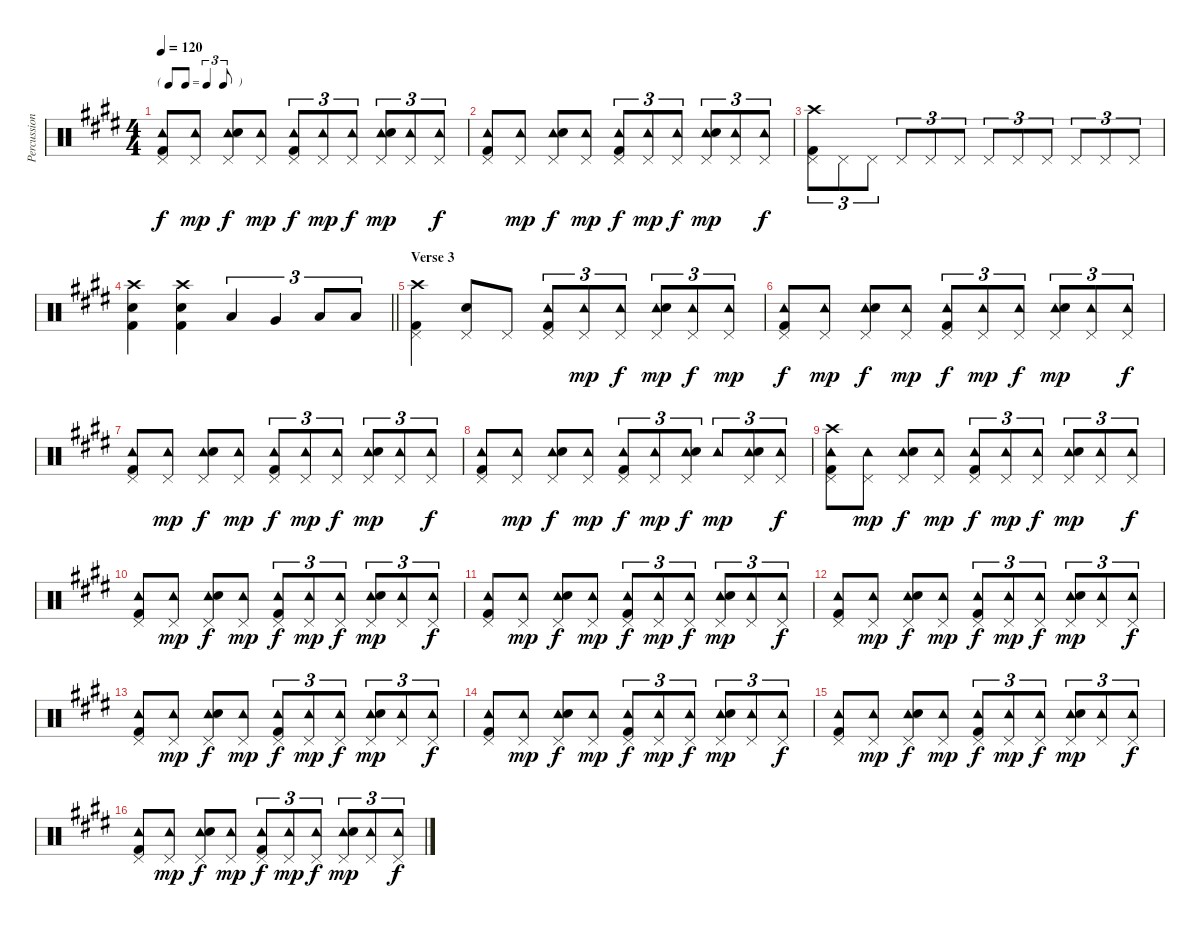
\track ("Percussion" "Percussion") {instrument percussion}
\staff {score}
\articulation defaults
\ts (4 4)
\tf triplet8th
\tempo 120
\clef neutral
\ks e
("Tambourine (hit)" "Pedal Hi-Hat (hit)" "Kick (hit) 2").8{dy f} ("Tambourine (hit)" "Pedal Hi-Hat (hit)").8{dy mp} ("Tambourine (hit)" "Pedal Hi-Hat (hit)" "Electric Snare (hit)").8{dy f} ("Tambourine (hit)" "Pedal Hi-Hat (hit)").8{dy mp} ("Tambourine (hit)" "Pedal Hi-Hat (hit)" "Kick (hit) 2").8{tu (3 2) dy f} ("Tambourine (hit)" "Pedal Hi-Hat (hit)").8{tu (3 2) dy mp} ("Tambourine (hit)" "Pedal Hi-Hat (hit)").8{tu (3 2) dy f} ("Tambourine (hit)" "Pedal Hi-Hat (hit)" "Electric Snare (hit)").8{tu (3 2) dy mp} ("Tambourine (hit)" "Pedal Hi-Hat (hit)").8{tu (3 2)} ("Tambourine (hit)" "Pedal Hi-Hat (hit)").8{tu (3 2) dy f} |
("Tambourine (hit)" "Pedal Hi-Hat (hit)" "Kick (hit) 2").8 ("Tambourine (hit)" "Pedal Hi-Hat (hit)").8{dy mp} ("Tambourine (hit)" "Pedal Hi-Hat (hit)" "Electric Snare (hit)").8{dy f} ("Tambourine (hit)" "Pedal Hi-Hat (hit)").8{dy mp} ("Tambourine (hit)" "Pedal Hi-Hat (hit)" "Kick (hit) 2").8{tu (3 2) dy f} ("Tambourine (hit)" "Pedal Hi-Hat (hit)").8{tu (3 2) dy mp} ("Tambourine (hit)" "Pedal Hi-Hat (hit)").8{tu (3 2) dy f} ("Tambourine (hit)" "Pedal Hi-Hat (hit)" "Electric Snare (hit)").8{tu (3 2) dy mp} ("Tambourine (hit)" "Pedal Hi-Hat (hit)").8{tu (3 2)} ("Tambourine (hit)" "Pedal Hi-Hat (hit)").8{tu (3 2) dy f} |
("Crash high (hit)" "Pedal Hi-Hat (hit)" "Kick (hit) 2").8{tu (3 2) volume 14} "Pedal Hi-Hat (hit)".8{tu (3 2)} "Pedal Hi-Hat (hit)".8{tu (3 2)} "Pedal Hi-Hat (hit)".8{tu (3 2)} "Pedal Hi-Hat (hit)".8{tu (3 2)} "Pedal Hi-Hat (hit)".8{tu (3 2)} "Pedal Hi-Hat (hit)".8{tu (3 2)} "Pedal Hi-Hat (hit)".8{tu (3 2)} "Pedal Hi-Hat (hit)".8{tu (3 2)} "Pedal Hi-Hat (hit)".8{tu (3 2)} "Pedal Hi-Hat (hit)".8{tu (3 2)} "Pedal Hi-Hat (hit)".8{tu (3 2)} |
\barLineRight lightlight
("Crash high (hit)" "Electric Snare (hit)" "Kick (hit) 2").4 ("Crash high (hit)" "Electric Snare (hit)" "Kick (hit) 2").4 "Low Tom (hit)".4{tu (3 2)} "Very Low Tom (hit)".4{tu (3 2)} "Low Floor Tom (hit)".8{tu (3 2)} "Low Floor Tom (hit)".8{tu (3 2)} |
\section ("" "Verse 3")
("Crash high (hit)" "Pedal Hi-Hat (hit)" "Kick (hit) 2").4{volume 10} ("Pedal Hi-Hat (hit)" "Electric Snare (hit)").8 "Pedal Hi-Hat (hit)".8 ("Tambourine (hit)" "Pedal Hi-Hat (hit)" "Kick (hit) 2").8{tu (3 2)} ("Tambourine (hit)" "Pedal Hi-Hat (hit)").8{tu (3 2) dy mp} ("Tambourine (hit)" "Pedal Hi-Hat (hit)").8{tu (3 2) dy f} ("Tambourine (hit)" "Pedal Hi-Hat (hit)" "Electric Snare (hit)").8{tu (3 2) dy mp} ("Tambourine (hit)" "Pedal Hi-Hat (hit)").8{tu (3 2) dy f} ("Tambourine (hit)" "Pedal Hi-Hat (hit)").8{tu (3 2) dy mp} |
("Tambourine (hit)" "Pedal Hi-Hat (hit)" "Kick (hit) 2").8{dy f} ("Tambourine (hit)" "Pedal Hi-Hat (hit)").8{dy mp} ("Tambourine (hit)" "Pedal Hi-Hat (hit)" "Electric Snare (hit)").8{dy f} ("Tambourine (hit)" "Pedal Hi-Hat (hit)").8{dy mp} ("Tambourine (hit)" "Pedal Hi-Hat (hit)" "Kick (hit) 2").8{tu (3 2) dy f} ("Tambourine (hit)" "Pedal Hi-Hat (hit)").8{tu (3 2) dy mp} ("Tambourine (hit)" "Pedal Hi-Hat (hit)").8{tu (3 2) dy f} ("Tambourine (hit)" "Pedal Hi-Hat (hit)" "Electric Snare (hit)").8{tu (3 2) dy mp} ("Tambourine (hit)" "Pedal Hi-Hat (hit)").8{tu (3 2)} ("Tambourine (hit)" "Pedal Hi-Hat (hit)").8{tu (3 2) dy f} |
("Tambourine (hit)" "Pedal Hi-Hat (hit)" "Kick (hit) 2").8 ("Tambourine (hit)" "Pedal Hi-Hat (hit)").8{dy mp} ("Tambourine (hit)" "Pedal Hi-Hat (hit)" "Electric Snare (hit)").8{dy f} ("Tambourine (hit)" "Pedal Hi-Hat (hit)").8{dy mp} ("Tambourine (hit)" "Pedal Hi-Hat (hit)" "Kick (hit) 2").8{tu (3 2) dy f} ("Tambourine (hit)" "Pedal Hi-Hat (hit)").8{tu (3 2) dy mp} ("Tambourine (hit)" "Pedal Hi-Hat (hit)").8{tu (3 2) dy f} ("Tambourine (hit)" "Pedal Hi-Hat (hit)" "Electric Snare (hit)").8{tu (3 2) dy mp} ("Tambourine (hit)" "Pedal Hi-Hat (hit)").8{tu (3 2)} ("Tambourine (hit)" "Pedal Hi-Hat (hit)").8{tu (3 2) dy f} |
("Tambourine (hit)" "Pedal Hi-Hat (hit)" "Kick (hit) 2").8 ("Tambourine (hit)" "Pedal Hi-Hat (hit)").8{dy mp} ("Tambourine (hit)" "Pedal Hi-Hat (hit)" "Electric Snare (hit)").8{dy f} ("Tambourine (hit)" "Pedal Hi-Hat (hit)").8{dy mp} ("Tambourine (hit)" "Pedal Hi-Hat (hit)" "Kick (hit) 2").8{tu (3 2) dy f} ("Tambourine (hit)" "Pedal Hi-Hat (hit)").8{tu (3 2) dy mp} ("Tambourine (hit)" "Pedal Hi-Hat (hit)" "Electric Snare (hit)").8{tu (3 2) dy f} "Tambourine (hit)".8{tu (3 2) dy mp} ("Tambourine (hit)" "Pedal Hi-Hat (hit)" "Electric Snare (hit)").8{tu (3 2)} ("Tambourine (hit)" "Pedal Hi-Hat (hit)").8{tu (3 2) dy f} |
("Tambourine (hit)" "Crash high (hit)" "Pedal Hi-Hat (hit)" "Kick (hit) 2").8 ("Tambourine (hit)" "Pedal Hi-Hat (hit)").8{dy mp} ("Tambourine (hit)" "Pedal Hi-Hat (hit)" "Electric Snare (hit)").8{dy f} ("Tambourine (hit)" "Pedal Hi-Hat (hit)").8{dy mp} ("Tambourine (hit)" "Pedal Hi-Hat (hit)" "Kick (hit) 2").8{tu (3 2) dy f} ("Tambourine (hit)" "Pedal Hi-Hat (hit)").8{tu (3 2) dy mp} ("Tambourine (hit)" "Pedal Hi-Hat (hit)").8{tu (3 2) dy f} ("Tambourine (hit)" "Pedal Hi-Hat (hit)" "Electric Snare (hit)").8{tu (3 2) dy mp} ("Tambourine (hit)" "Pedal Hi-Hat (hit)").8{tu (3 2)} ("Tambourine (hit)" "Pedal Hi-Hat (hit)").8{tu (3 2) dy f} |
("Tambourine (hit)" "Pedal Hi-Hat (hit)" "Kick (hit) 2").8 ("Tambourine (hit)" "Pedal Hi-Hat (hit)").8{dy mp} ("Tambourine (hit)" "Pedal Hi-Hat (hit)" "Electric Snare (hit)").8{dy f} ("Tambourine (hit)" "Pedal Hi-Hat (hit)").8{dy mp} ("Tambourine (hit)" "Pedal Hi-Hat (hit)" "Kick (hit) 2").8{tu (3 2) dy f} ("Tambourine (hit)" "Pedal Hi-Hat (hit)").8{tu (3 2) dy mp} ("Tambourine (hit)" "Pedal Hi-Hat (hit)").8{tu (3 2) dy f} ("Tambourine (hit)" "Pedal Hi-Hat (hit)" "Electric Snare (hit)").8{tu (3 2) dy mp} ("Tambourine (hit)" "Pedal Hi-Hat (hit)").8{tu (3 2)} ("Tambourine (hit)" "Pedal Hi-Hat (hit)").8{tu (3 2) dy f} |
("Tambourine (hit)" "Pedal Hi-Hat (hit)" "Kick (hit) 2").8 ("Tambourine (hit)" "Pedal Hi-Hat (hit)").8{dy mp} ("Tambourine (hit)" "Pedal Hi-Hat (hit)" "Electric Snare (hit)").8{dy f} ("Tambourine (hit)" "Pedal Hi-Hat (hit)").8{dy mp} ("Tambourine (hit)" "Pedal Hi-Hat (hit)" "Kick (hit) 2").8{tu (3 2) dy f} ("Tambourine (hit)" "Pedal Hi-Hat (hit)").8{tu (3 2) dy mp} ("Tambourine (hit)" "Pedal Hi-Hat (hit)").8{tu (3 2) dy f} ("Tambourine (hit)" "Pedal Hi-Hat (hit)" "Electric Snare (hit)").8{tu (3 2) dy mp} ("Tambourine (hit)" "Pedal Hi-Hat (hit)").8{tu (3 2)} ("Tambourine (hit)" "Pedal Hi-Hat (hit)").8{tu (3 2) dy f} |
("Tambourine (hit)" "Pedal Hi-Hat (hit)" "Kick (hit) 2").8 ("Tambourine (hit)" "Pedal Hi-Hat (hit)").8{dy mp} ("Tambourine (hit)" "Pedal Hi-Hat (hit)" "Electric Snare (hit)").8{dy f} ("Tambourine (hit)" "Pedal Hi-Hat (hit)").8{dy mp} ("Tambourine (hit)" "Pedal Hi-Hat (hit)" "Kick (hit) 2").8{tu (3 2) dy f} ("Tambourine (hit)" "Pedal Hi-Hat (hit)").8{tu (3 2) dy mp} ("Tambourine (hit)" "Pedal Hi-Hat (hit)").8{tu (3 2) dy f} ("Tambourine (hit)" "Pedal Hi-Hat (hit)" "Electric Snare (hit)").8{tu (3 2) dy mp} ("Tambourine (hit)" "Pedal Hi-Hat (hit)").8{tu (3 2)} ("Tambourine (hit)" "Pedal Hi-Hat (hit)").8{tu (3 2) dy f} |
("Tambourine (hit)" "Pedal Hi-Hat (hit)" "Kick (hit) 2").8 ("Tambourine (hit)" "Pedal Hi-Hat (hit)").8{dy mp} ("Tambourine (hit)" "Pedal Hi-Hat (hit)" "Electric Snare (hit)").8{dy f} ("Tambourine (hit)" "Pedal Hi-Hat (hit)").8{dy mp} ("Tambourine (hit)" "Pedal Hi-Hat (hit)" "Kick (hit) 2").8{tu (3 2) dy f} ("Tambourine (hit)" "Pedal Hi-Hat (hit)").8{tu (3 2) dy mp} ("Tambourine (hit)" "Pedal Hi-Hat (hit)").8{tu (3 2) dy f} ("Tambourine (hit)" "Pedal Hi-Hat (hit)" "Electric Snare (hit)").8{tu (3 2) dy mp} ("Tambourine (hit)" "Pedal Hi-Hat (hit)").8{tu (3 2)} ("Tambourine (hit)" "Pedal Hi-Hat (hit)").8{tu (3 2) dy f} |
("Tambourine (hit)" "Pedal Hi-Hat (hit)" "Kick (hit) 2").8 ("Tambourine (hit)" "Pedal Hi-Hat (hit)").8{dy mp} ("Tambourine (hit)" "Pedal Hi-Hat (hit)" "Electric Snare (hit)").8{dy f} ("Tambourine (hit)" "Pedal Hi-Hat (hit)").8{dy mp} ("Tambourine (hit)" "Pedal Hi-Hat (hit)" "Kick (hit) 2").8{tu (3 2) dy f} ("Tambourine (hit)" "Pedal Hi-Hat (hit)").8{tu (3 2) dy mp} ("Tambourine (hit)" "Pedal Hi-Hat (hit)").8{tu (3 2) dy f} ("Tambourine (hit)" "Pedal Hi-Hat (hit)" "Electric Snare (hit)").8{tu (3 2) dy mp} ("Tambourine (hit)" "Pedal Hi-Hat (hit)").8{tu (3 2)} ("Tambourine (hit)" "Pedal Hi-Hat (hit)").8{tu (3 2) dy f} |
("Tambourine (hit)" "Pedal Hi-Hat (hit)" "Kick (hit) 2").8 ("Tambourine (hit)" "Pedal Hi-Hat (hit)").8{dy mp} ("Tambourine (hit)" "Pedal Hi-Hat (hit)" "Electric Snare (hit)").8{dy f} ("Tambourine (hit)" "Pedal Hi-Hat (hit)").8{dy mp} ("Tambourine (hit)" "Pedal Hi-Hat (hit)" "Kick (hit) 2").8{tu (3 2) dy f} ("Tambourine (hit)" "Pedal Hi-Hat (hit)").8{tu (3 2) dy mp} ("Tambourine (hit)" "Pedal Hi-Hat (hit)").8{tu (3 2) dy f} ("Tambourine (hit)" "Pedal Hi-Hat (hit)" "Electric Snare (hit)").8{tu (3 2) dy mp} ("Tambourine (hit)" "Pedal Hi-Hat (hit)").8{tu (3 2)} ("Tambourine (hit)" "Pedal Hi-Hat (hit)").8{tu (3 2) dy f} |
("Tambourine (hit)" "Pedal Hi-Hat (hit)" "Kick (hit) 2").8 ("Tambourine (hit)" "Pedal Hi-Hat (hit)").8{dy mp} ("Tambourine (hit)" "Pedal Hi-Hat (hit)" "Electric Snare (hit)").8{dy f} ("Tambourine (hit)" "Pedal Hi-Hat (hit)").8{dy mp} ("Tambourine (hit)" "Pedal Hi-Hat (hit)" "Kick (hit) 2").8{tu (3 2) dy f} ("Tambourine (hit)" "Pedal Hi-Hat (hit)").8{tu (3 2) dy mp} ("Tambourine (hit)" "Pedal Hi-Hat (hit)").8{tu (3 2) dy f} ("Tambourine (hit)" "Pedal Hi-Hat (hit)" "Electric Snare (hit)").8{tu (3 2) dy mp} ("Tambourine (hit)" "Pedal Hi-Hat (hit)").8{tu (3 2)} ("Tambourine (hit)" "Pedal Hi-Hat (hit)").8{tu (3 2) dy f}
